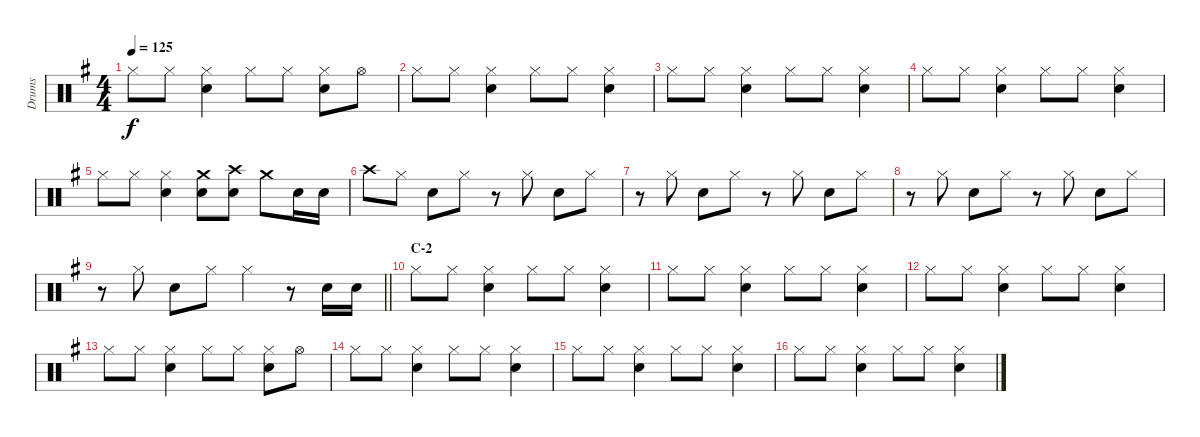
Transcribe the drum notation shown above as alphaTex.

\track ("Drums" "Drums") {instrument percussion}
\staff {score}
\articulation defaults
\ts (4 4)
\tempo 125
\clef neutral
\ks g "Hi-Hat (closed)".8{dy f} "Hi-Hat (closed)".8
("Hi-Hat (closed)" "Snare (hit) 2").4 "Hi-Hat (closed)".8 "Hi-Hat (closed)".8 ("Hi-Hat (closed)" "Snare (hit) 2").8 "Hi-Hat (open)".8 |
"Hi-Hat (closed)".8 "Hi-Hat (closed)".8 ("Hi-Hat (closed)" "Snare (hit) 2").4 "Hi-Hat (closed)".8 "Hi-Hat (closed)".8 ("Hi-Hat (closed)" "Snare (hit) 2").4 |
"Hi-Hat (closed)".8 "Hi-Hat (closed)".8 ("Hi-Hat (closed)" "Snare (hit) 2").4 "Hi-Hat (closed)".8 "Hi-Hat (closed)".8 ("Hi-Hat (closed)" "Snare (hit) 2").4 |
"Hi-Hat (closed)".8 "Hi-Hat (closed)".8 ("Hi-Hat (closed)" "Snare (hit) 2").4 "Hi-Hat (closed)".8 "Hi-Hat (closed)".8 ("Hi-Hat (closed)" "Snare (hit) 2").4 |
"Hi-Hat (closed)".8 "Hi-Hat (closed)".8 ("Hi-Hat (closed)" "Snare (hit) 2").4 ("Crash medium (hit)" "Snare (hit) 2").8 ("Crash high (hit)" "Snare (hit) 2").8 "Crash medium (hit)".8 "Snare (hit) 2".16 "Snare (hit) 2".16 |
"Crash high (hit)".8 "Hi-Hat (closed)".8 "Snare (hit) 2".8 "Hi-Hat (closed)".8 r.8 "Hi-Hat (closed)".8 "Snare (hit) 2".8 "Hi-Hat (closed)".8 |
r.8 "Hi-Hat (closed)".8 "Snare (hit) 2".8 "Hi-Hat (closed)".8 r.8 "Hi-Hat (closed)".8 "Snare (hit) 2".8 "Hi-Hat (closed)".8 |
r.8 "Hi-Hat (closed)".8 "Snare (hit) 2".8 "Hi-Hat (closed)".8 r.8 "Hi-Hat (closed)".8 "Snare (hit) 2".8 "Hi-Hat (closed)".8 |
\barLineRight lightlight
r.8 "Hi-Hat (closed)".8 "Snare (hit) 2".8 "Hi-Hat (closed)".8 "Hi-Hat (closed)".4 r.8 "Snare (hit) 2".16 "Snare (hit) 2".16 |
\section ("" "C-2")
"Hi-Hat (closed)".8 "Hi-Hat (closed)".8 ("Hi-Hat (closed)" "Snare (hit) 2").4 "Hi-Hat (closed)".8 "Hi-Hat (closed)".8 ("Hi-Hat (closed)" "Snare (hit) 2").4 |
"Hi-Hat (closed)".8 "Hi-Hat (closed)".8 ("Hi-Hat (closed)" "Snare (hit) 2").4 "Hi-Hat (closed)".8 "Hi-Hat (closed)".8 ("Hi-Hat (closed)" "Snare (hit) 2").4 |
"Hi-Hat (closed)".8 "Hi-Hat (closed)".8 ("Hi-Hat (closed)" "Snare (hit) 2").4 "Hi-Hat (closed)".8 "Hi-Hat (closed)".8 ("Hi-Hat (closed)" "Snare (hit) 2").4 |
"Hi-Hat (closed)".8 "Hi-Hat (closed)".8 ("Hi-Hat (closed)" "Snare (hit) 2").4 "Hi-Hat (closed)".8 "Hi-Hat (closed)".8 ("Hi-Hat (closed)" "Snare (hit) 2").8 "Hi-Hat (open)".8 |
"Hi-Hat (closed)".8 "Hi-Hat (closed)".8 ("Hi-Hat (closed)" "Snare (hit) 2").4 "Hi-Hat (closed)".8 "Hi-Hat (closed)".8 ("Hi-Hat (closed)" "Snare (hit) 2").4 |
"Hi-Hat (closed)".8 "Hi-Hat (closed)".8 ("Hi-Hat (closed)" "Snare (hit) 2").4 "Hi-Hat (closed)".8 "Hi-Hat (closed)".8 ("Hi-Hat (closed)" "Snare (hit) 2").4 |
"Hi-Hat (closed)".8 "Hi-Hat (closed)".8 ("Hi-Hat (closed)" "Snare (hit) 2").4 "Hi-Hat (closed)".8 "Hi-Hat (closed)".8 ("Hi-Hat (closed)" "Snare (hit) 2").4
